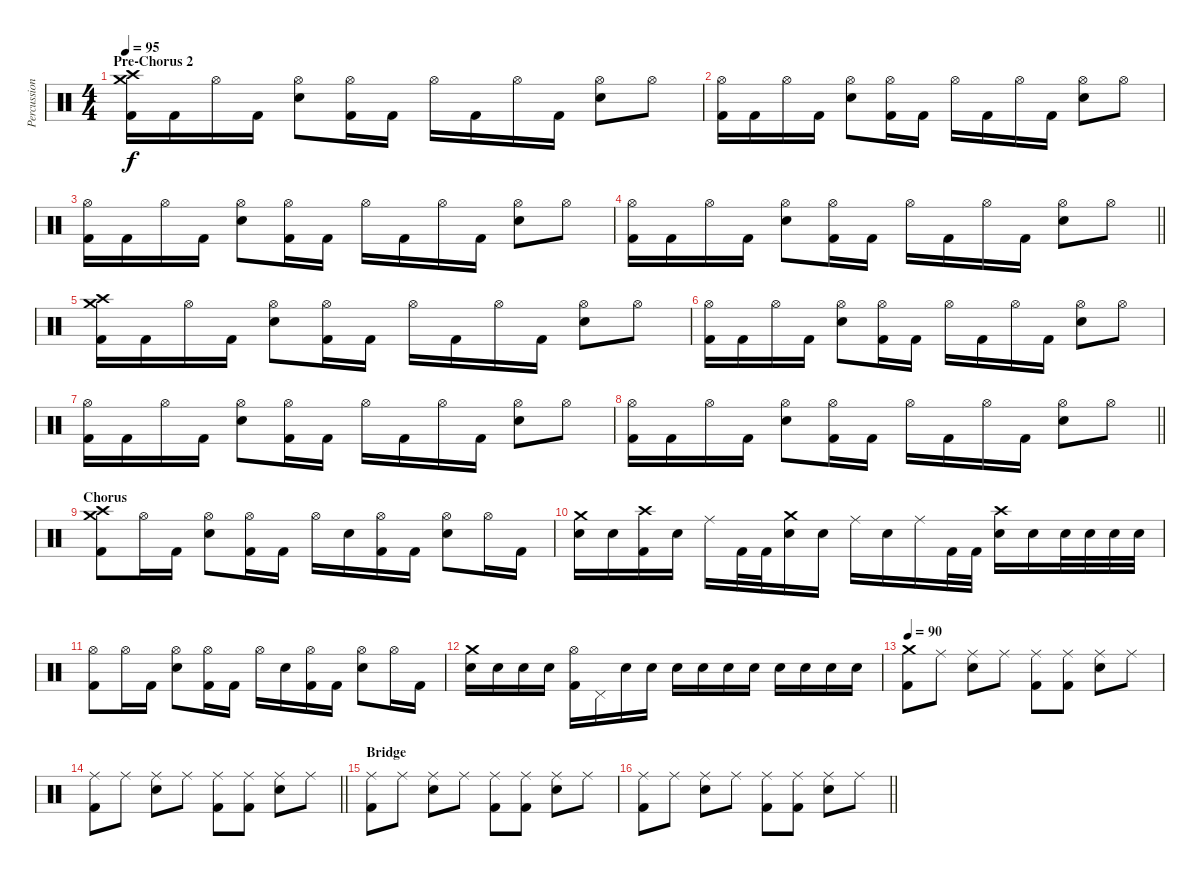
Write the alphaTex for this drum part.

\track ("Percussion" "Percussion") {instrument percussion}
\staff {score}
\articulation defaults
\ts (4 4)
\section ("" "Pre-Chorus 2")
\tempo 95
\clef neutral
\ks c
("Crash medium (hit)" "Crash high (hit)" "Kick (hit) 2").16{dy f} "Kick (hit) 2".16 "Hi-Hat (open)".16 "Kick (hit) 2".16 ("Hi-Hat (open)" "Electric Snare (hit)").8 ("Hi-Hat (open)" "Kick (hit) 2").16 "Kick (hit) 2".16 "Hi-Hat (open)".16 "Kick (hit) 2".16 "Hi-Hat (open)".16 "Kick (hit) 2".16 ("Hi-Hat (open)" "Electric Snare (hit)").8 "Hi-Hat (open)".8 |
("Hi-Hat (open)" "Kick (hit) 2").16 "Kick (hit) 2".16 "Hi-Hat (open)".16 "Kick (hit) 2".16 ("Hi-Hat (open)" "Electric Snare (hit)").8 ("Hi-Hat (open)" "Kick (hit) 2").16 "Kick (hit) 2".16 "Hi-Hat (open)".16 "Kick (hit) 2".16 "Hi-Hat (open)".16 "Kick (hit) 2".16 ("Hi-Hat (open)" "Electric Snare (hit)").8 "Hi-Hat (open)".8 |
("Hi-Hat (open)" "Kick (hit) 2").16 "Kick (hit) 2".16 "Hi-Hat (open)".16 "Kick (hit) 2".16 ("Hi-Hat (open)" "Electric Snare (hit)").8 ("Hi-Hat (open)" "Kick (hit) 2").16 "Kick (hit) 2".16 "Hi-Hat (open)".16 "Kick (hit) 2".16 "Hi-Hat (open)".16 "Kick (hit) 2".16 ("Hi-Hat (open)" "Electric Snare (hit)").8 "Hi-Hat (open)".8 |
\barLineRight lightlight
("Hi-Hat (open)" "Kick (hit) 2").16 "Kick (hit) 2".16 "Hi-Hat (open)".16 "Kick (hit) 2".16 ("Hi-Hat (open)" "Electric Snare (hit)").8 ("Hi-Hat (open)" "Kick (hit) 2").16 "Kick (hit) 2".16 "Hi-Hat (open)".16 "Kick (hit) 2".16 "Hi-Hat (open)".16 "Kick (hit) 2".16 ("Hi-Hat (open)" "Electric Snare (hit)").8 "Hi-Hat (open)".8 |
("Crash medium (hit)" "Crash high (hit)" "Kick (hit) 2").16 "Kick (hit) 2".16 "Hi-Hat (open)".16 "Kick (hit) 2".16 ("Hi-Hat (open)" "Electric Snare (hit)").8 ("Hi-Hat (open)" "Kick (hit) 2").16 "Kick (hit) 2".16 "Hi-Hat (open)".16 "Kick (hit) 2".16 "Hi-Hat (open)".16 "Kick (hit) 2".16 ("Hi-Hat (open)" "Electric Snare (hit)").8 "Hi-Hat (open)".8 |
("Hi-Hat (open)" "Kick (hit) 2").16 "Kick (hit) 2".16 "Hi-Hat (open)".16 "Kick (hit) 2".16 ("Hi-Hat (open)" "Electric Snare (hit)").8 ("Hi-Hat (open)" "Kick (hit) 2").16 "Kick (hit) 2".16 "Hi-Hat (open)".16 "Kick (hit) 2".16 "Hi-Hat (open)".16 "Kick (hit) 2".16 ("Hi-Hat (open)" "Electric Snare (hit)").8 "Hi-Hat (open)".8 |
("Hi-Hat (open)" "Kick (hit) 2").16 "Kick (hit) 2".16 "Hi-Hat (open)".16 "Kick (hit) 2".16 ("Hi-Hat (open)" "Electric Snare (hit)").8 ("Hi-Hat (open)" "Kick (hit) 2").16 "Kick (hit) 2".16 "Hi-Hat (open)".16 "Kick (hit) 2".16 "Hi-Hat (open)".16 "Kick (hit) 2".16 ("Hi-Hat (open)" "Electric Snare (hit)").8 "Hi-Hat (open)".8 |
\barLineRight lightlight
("Hi-Hat (open)" "Kick (hit) 2").16 "Kick (hit) 2".16 "Hi-Hat (open)".16 "Kick (hit) 2".16 ("Hi-Hat (open)" "Electric Snare (hit)").8 ("Hi-Hat (open)" "Kick (hit) 2").16 "Kick (hit) 2".16 "Hi-Hat (open)".16 "Kick (hit) 2".16 "Hi-Hat (open)".16 "Kick (hit) 2".16 ("Hi-Hat (open)" "Electric Snare (hit)").8 "Hi-Hat (open)".8 |
\section ("" "Chorus")
("Crash medium (hit)" "Crash high (hit)" "Kick (hit) 2").8 "Hi-Hat (open)".16 "Kick (hit) 2".16 ("Hi-Hat (open)" "Electric Snare (hit)").8 ("Hi-Hat (open)" "Kick (hit) 2").16 "Kick (hit) 2".16 "Hi-Hat (open)".16 "Electric Snare (hit)".16 ("Hi-Hat (open)" "Kick (hit) 2").16 "Kick (hit) 2".16 ("Hi-Hat (open)" "Electric Snare (hit)").8 "Hi-Hat (open)".16 "Kick (hit) 2".16 |
("Crash medium (hit)" "Electric Snare (hit)").16 "Electric Snare (hit)".16 ("Crash high (hit)" "Kick (hit) 2").16 "Electric Snare (hit)".16 "Ride (middle)".16 "Kick (hit) 2".32 "Kick (hit) 2".32 ("Crash medium (hit)" "Electric Snare (hit)").16 "Electric Snare (hit)".16 "Ride (middle)".16 "Electric Snare (hit)".16 "Ride (middle)".16 "Kick (hit) 2".32 "Kick (hit) 2".32 ("Crash high (hit)" "Electric Snare (hit)").16 "Electric Snare (hit)".16 "Electric Snare (hit)".32 "Electric Snare (hit)".32 "Electric Snare (hit)".32 "Electric Snare (hit)".32 |
("Hi-Hat (open)" "Kick (hit) 2").8 "Hi-Hat (open)".16 "Kick (hit) 2".16 ("Hi-Hat (open)" "Electric Snare (hit)").8 ("Hi-Hat (open)" "Kick (hit) 2").16 "Kick (hit) 2".16 "Hi-Hat (open)".16 "Electric Snare (hit)".16 ("Hi-Hat (open)" "Kick (hit) 2").16 "Kick (hit) 2".16 ("Hi-Hat (open)" "Electric Snare (hit)").8 "Hi-Hat (open)".16 "Kick (hit) 2".16 |
("Crash medium (hit)" "Electric Snare (hit)").16 "Electric Snare (hit)".16 "Electric Snare (hit)".16 "Electric Snare (hit)".16 ("Hi-Hat (open)" "Kick (hit) 2").16 "Pedal Hi-Hat (hit)".16 "Electric Snare (hit)".16 "Electric Snare (hit)".16 "Electric Snare (hit)".16 "Electric Snare (hit)".16 "Electric Snare (hit)".16 "Electric Snare (hit)".16 "Electric Snare (hit)".16 "Electric Snare (hit)".16 "Electric Snare (hit)".16 "Electric Snare (hit)".16 |
\tempo 90
("Crash medium (hit)" "Kick (hit) 2").8 "Ride (middle)".8 ("Ride (middle)" "Electric Snare (hit)").8 "Ride (middle)".8 ("Ride (middle)" "Kick (hit) 2").8 ("Ride (middle)" "Kick (hit) 2").8 ("Ride (middle)" "Electric Snare (hit)").8 "Ride (middle)".8 |
\barLineRight lightlight
("Ride (middle)" "Kick (hit) 2").8 "Ride (middle)".8 ("Ride (middle)" "Electric Snare (hit)").8 "Ride (middle)".8 ("Ride (middle)" "Kick (hit) 2").8 ("Ride (middle)" "Kick (hit) 2").8 ("Ride (middle)" "Electric Snare (hit)").8 "Ride (middle)".8 |
\section ("" "Bridge")
("Ride (middle)" "Kick (hit) 2").8 "Ride (middle)".8 ("Ride (middle)" "Electric Snare (hit)").8 "Ride (middle)".8 ("Ride (middle)" "Kick (hit) 2").8 ("Ride (middle)" "Kick (hit) 2").8 ("Ride (middle)" "Electric Snare (hit)").8 "Ride (middle)".8 |
\barLineRight lightlight
("Ride (middle)" "Kick (hit) 2").8 "Ride (middle)".8 ("Ride (middle)" "Electric Snare (hit)").8 "Ride (middle)".8 ("Ride (middle)" "Kick (hit) 2").8 ("Ride (middle)" "Kick (hit) 2").8 ("Ride (middle)" "Electric Snare (hit)").8 "Ride (middle)".8
